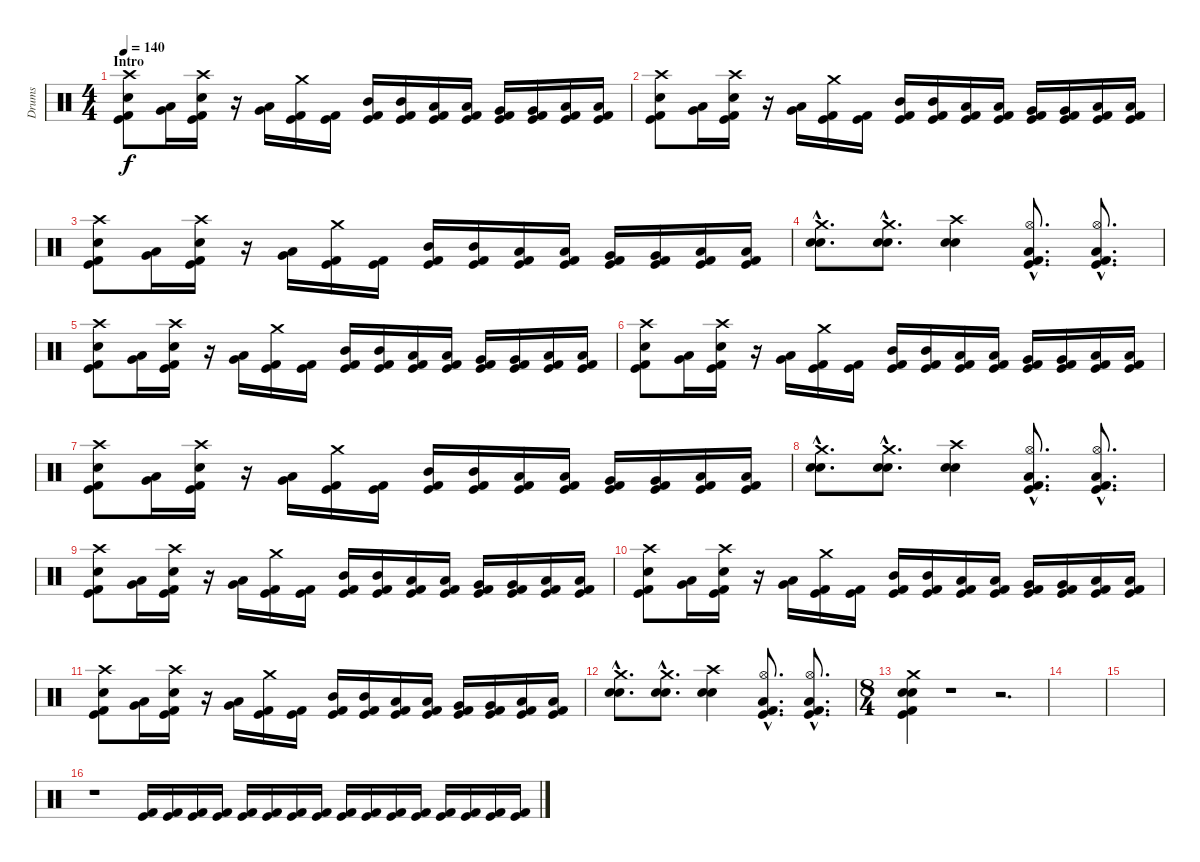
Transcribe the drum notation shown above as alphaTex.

\track ("Drums" "Drums") {instrument percussion}
\staff {score}
\articulation defaults
\ts (4 4)
\section ("" "Intro")
\tempo 140
\clef neutral
\ks c
("Crash high (hit)" "Electric Snare (hit)" "Kick (hit)" "Kick (hit) 2").8{dy f} ("Very Low Tom (hit)" "Low Tom (hit)").16 ("Crash high (hit)" "Electric Snare (hit)" "Kick (hit)" "Kick (hit) 2").16 r.16 ("Very Low Tom (hit)" "Low Tom (hit)").16 ("Crash medium (hit)" "Kick (hit) 2" "Kick (hit)").16 ("Kick (hit)" "Kick (hit) 2").16 ("Mid Tom (hit)" "Kick (hit) 2" "Kick (hit)").16 ("Mid Tom (hit)" "Kick (hit) 2" "Kick (hit)").16 ("Low Tom (hit)" "Kick (hit) 2" "Kick (hit)").16 ("Low Tom (hit)" "Kick (hit) 2" "Kick (hit)").16 ("Very Low Tom (hit)" "Kick (hit) 2" "Kick (hit)").16 ("Very Low Tom (hit)" "Kick (hit) 2" "Kick (hit)").16 ("Low Tom (hit)" "Kick (hit) 2" "Kick (hit)").16 ("Low Tom (hit)" "Kick (hit) 2" "Kick (hit)").16 |
("Crash high (hit)" "Electric Snare (hit)" "Kick (hit)" "Kick (hit) 2").8 ("Very Low Tom (hit)" "Low Tom (hit)").16 ("Crash high (hit)" "Electric Snare (hit)" "Kick (hit)" "Kick (hit) 2").16 r.16 ("Very Low Tom (hit)" "Low Tom (hit)").16 ("Crash medium (hit)" "Kick (hit) 2" "Kick (hit)").16 ("Kick (hit)" "Kick (hit) 2").16 ("Mid Tom (hit)" "Kick (hit) 2" "Kick (hit)").16 ("Mid Tom (hit)" "Kick (hit) 2" "Kick (hit)").16 ("Low Tom (hit)" "Kick (hit) 2" "Kick (hit)").16 ("Low Tom (hit)" "Kick (hit) 2" "Kick (hit)").16 ("Very Low Tom (hit)" "Kick (hit) 2" "Kick (hit)").16 ("Very Low Tom (hit)" "Kick (hit) 2" "Kick (hit)").16 ("Low Tom (hit)" "Kick (hit) 2" "Kick (hit)").16 ("Low Tom (hit)" "Kick (hit) 2" "Kick (hit)").16 |
("Crash high (hit)" "Electric Snare (hit)" "Kick (hit)" "Kick (hit) 2").8 ("Very Low Tom (hit)" "Low Tom (hit)").16 ("Crash high (hit)" "Electric Snare (hit)" "Kick (hit)" "Kick (hit) 2").16 r.16 ("Very Low Tom (hit)" "Low Tom (hit)").16 ("Crash medium (hit)" "Kick (hit) 2" "Kick (hit)").16 ("Kick (hit)" "Kick (hit) 2").16 ("Mid Tom (hit)" "Kick (hit) 2" "Kick (hit)").16 ("Mid Tom (hit)" "Kick (hit) 2" "Kick (hit)").16 ("Low Tom (hit)" "Kick (hit) 2" "Kick (hit)").16 ("Low Tom (hit)" "Kick (hit) 2" "Kick (hit)").16 ("Very Low Tom (hit)" "Kick (hit) 2" "Kick (hit)").16 ("Very Low Tom (hit)" "Kick (hit) 2" "Kick (hit)").16 ("Low Tom (hit)" "Kick (hit) 2" "Kick (hit)").16 ("Low Tom (hit)" "Kick (hit) 2" "Kick (hit)").16 |
("Crash medium (hit)"{hac} "Snare (hit) 2"{hac} "Electric Snare (hit)"{hac}).8{d} ("Crash medium (hit)"{hac} "Snare (hit) 2"{hac} "Electric Snare (hit)"{hac}).8{d} ("Crash high (hit)" "Snare (hit) 2" "Electric Snare (hit)").4 ("Hi-Hat (open)"{hac} "Low Floor Tom (hit)"{hac} "Kick (hit)"{hac} "Kick (hit) 2"{hac}).8{d} ("Hi-Hat (open)"{hac} "Low Floor Tom (hit)"{hac} "Kick (hit)"{hac} "Kick (hit) 2"{hac}).8{d} |
("Crash high (hit)" "Electric Snare (hit)" "Kick (hit)" "Kick (hit) 2").8 ("Very Low Tom (hit)" "Low Tom (hit)").16 ("Crash high (hit)" "Electric Snare (hit)" "Kick (hit)" "Kick (hit) 2").16 r.16 ("Very Low Tom (hit)" "Low Tom (hit)").16 ("Crash medium (hit)" "Kick (hit) 2" "Kick (hit)").16 ("Kick (hit)" "Kick (hit) 2").16 ("Mid Tom (hit)" "Kick (hit) 2" "Kick (hit)").16 ("Mid Tom (hit)" "Kick (hit) 2" "Kick (hit)").16 ("Low Tom (hit)" "Kick (hit) 2" "Kick (hit)").16 ("Low Tom (hit)" "Kick (hit) 2" "Kick (hit)").16 ("Very Low Tom (hit)" "Kick (hit) 2" "Kick (hit)").16 ("Very Low Tom (hit)" "Kick (hit) 2" "Kick (hit)").16 ("Low Tom (hit)" "Kick (hit) 2" "Kick (hit)").16 ("Low Tom (hit)" "Kick (hit) 2" "Kick (hit)").16 |
("Crash high (hit)" "Electric Snare (hit)" "Kick (hit)" "Kick (hit) 2").8 ("Very Low Tom (hit)" "Low Tom (hit)").16 ("Crash high (hit)" "Electric Snare (hit)" "Kick (hit)" "Kick (hit) 2").16 r.16 ("Very Low Tom (hit)" "Low Tom (hit)").16 ("Crash medium (hit)" "Kick (hit) 2" "Kick (hit)").16 ("Kick (hit)" "Kick (hit) 2").16 ("Mid Tom (hit)" "Kick (hit) 2" "Kick (hit)").16 ("Mid Tom (hit)" "Kick (hit) 2" "Kick (hit)").16 ("Low Tom (hit)" "Kick (hit) 2" "Kick (hit)").16 ("Low Tom (hit)" "Kick (hit) 2" "Kick (hit)").16 ("Very Low Tom (hit)" "Kick (hit) 2" "Kick (hit)").16 ("Very Low Tom (hit)" "Kick (hit) 2" "Kick (hit)").16 ("Low Tom (hit)" "Kick (hit) 2" "Kick (hit)").16 ("Low Tom (hit)" "Kick (hit) 2" "Kick (hit)").16 |
("Crash high (hit)" "Electric Snare (hit)" "Kick (hit)" "Kick (hit) 2").8 ("Very Low Tom (hit)" "Low Tom (hit)").16 ("Crash high (hit)" "Electric Snare (hit)" "Kick (hit)" "Kick (hit) 2").16 r.16 ("Very Low Tom (hit)" "Low Tom (hit)").16 ("Crash medium (hit)" "Kick (hit) 2" "Kick (hit)").16 ("Kick (hit)" "Kick (hit) 2").16 ("Mid Tom (hit)" "Kick (hit) 2" "Kick (hit)").16 ("Mid Tom (hit)" "Kick (hit) 2" "Kick (hit)").16 ("Low Tom (hit)" "Kick (hit) 2" "Kick (hit)").16 ("Low Tom (hit)" "Kick (hit) 2" "Kick (hit)").16 ("Very Low Tom (hit)" "Kick (hit) 2" "Kick (hit)").16 ("Very Low Tom (hit)" "Kick (hit) 2" "Kick (hit)").16 ("Low Tom (hit)" "Kick (hit) 2" "Kick (hit)").16 ("Low Tom (hit)" "Kick (hit) 2" "Kick (hit)").16 |
("Crash medium (hit)"{hac} "Snare (hit) 2"{hac} "Electric Snare (hit)"{hac}).8{d} ("Crash medium (hit)"{hac} "Snare (hit) 2"{hac} "Electric Snare (hit)"{hac}).8{d} ("Crash high (hit)" "Snare (hit) 2" "Electric Snare (hit)").4 ("Hi-Hat (open)"{hac} "Low Floor Tom (hit)"{hac} "Kick (hit)"{hac} "Kick (hit) 2"{hac}).8{d} ("Hi-Hat (open)"{hac} "Low Floor Tom (hit)"{hac} "Kick (hit)"{hac} "Kick (hit) 2"{hac}).8{d} |
("Crash high (hit)" "Electric Snare (hit)" "Kick (hit)" "Kick (hit) 2").8 ("Very Low Tom (hit)" "Low Tom (hit)").16 ("Crash high (hit)" "Electric Snare (hit)" "Kick (hit)" "Kick (hit) 2").16 r.16 ("Very Low Tom (hit)" "Low Tom (hit)").16 ("Crash medium (hit)" "Kick (hit) 2" "Kick (hit)").16 ("Kick (hit)" "Kick (hit) 2").16 ("Mid Tom (hit)" "Kick (hit) 2" "Kick (hit)").16 ("Mid Tom (hit)" "Kick (hit) 2" "Kick (hit)").16 ("Low Tom (hit)" "Kick (hit) 2" "Kick (hit)").16 ("Low Tom (hit)" "Kick (hit) 2" "Kick (hit)").16 ("Very Low Tom (hit)" "Kick (hit) 2" "Kick (hit)").16 ("Very Low Tom (hit)" "Kick (hit) 2" "Kick (hit)").16 ("Low Tom (hit)" "Kick (hit) 2" "Kick (hit)").16 ("Low Tom (hit)" "Kick (hit) 2" "Kick (hit)").16 |
("Crash high (hit)" "Electric Snare (hit)" "Kick (hit)" "Kick (hit) 2").8 ("Very Low Tom (hit)" "Low Tom (hit)").16 ("Crash high (hit)" "Electric Snare (hit)" "Kick (hit)" "Kick (hit) 2").16 r.16 ("Very Low Tom (hit)" "Low Tom (hit)").16 ("Crash medium (hit)" "Kick (hit) 2" "Kick (hit)").16 ("Kick (hit)" "Kick (hit) 2").16 ("Mid Tom (hit)" "Kick (hit) 2" "Kick (hit)").16 ("Mid Tom (hit)" "Kick (hit) 2" "Kick (hit)").16 ("Low Tom (hit)" "Kick (hit) 2" "Kick (hit)").16 ("Low Tom (hit)" "Kick (hit) 2" "Kick (hit)").16 ("Very Low Tom (hit)" "Kick (hit) 2" "Kick (hit)").16 ("Very Low Tom (hit)" "Kick (hit) 2" "Kick (hit)").16 ("Low Tom (hit)" "Kick (hit) 2" "Kick (hit)").16 ("Low Tom (hit)" "Kick (hit) 2" "Kick (hit)").16 |
("Crash high (hit)" "Electric Snare (hit)" "Kick (hit)" "Kick (hit) 2").8 ("Very Low Tom (hit)" "Low Tom (hit)").16 ("Crash high (hit)" "Electric Snare (hit)" "Kick (hit)" "Kick (hit) 2").16 r.16 ("Very Low Tom (hit)" "Low Tom (hit)").16 ("Crash medium (hit)" "Kick (hit) 2" "Kick (hit)").16 ("Kick (hit)" "Kick (hit) 2").16 ("Mid Tom (hit)" "Kick (hit) 2" "Kick (hit)").16 ("Mid Tom (hit)" "Kick (hit) 2" "Kick (hit)").16 ("Low Tom (hit)" "Kick (hit) 2" "Kick (hit)").16 ("Low Tom (hit)" "Kick (hit) 2" "Kick (hit)").16 ("Very Low Tom (hit)" "Kick (hit) 2" "Kick (hit)").16 ("Very Low Tom (hit)" "Kick (hit) 2" "Kick (hit)").16 ("Low Tom (hit)" "Kick (hit) 2" "Kick (hit)").16 ("Low Tom (hit)" "Kick (hit) 2" "Kick (hit)").16 |
("Crash medium (hit)"{hac} "Snare (hit) 2"{hac} "Electric Snare (hit)"{hac}).8{d} ("Crash medium (hit)"{hac} "Snare (hit) 2"{hac} "Electric Snare (hit)"{hac}).8{d} ("Crash high (hit)" "Snare (hit) 2" "Electric Snare (hit)").4 ("Hi-Hat (open)"{hac} "Low Floor Tom (hit)"{hac} "Kick (hit)"{hac} "Kick (hit) 2"{hac}).8{d} ("Hi-Hat (open)"{hac} "Low Floor Tom (hit)"{hac} "Kick (hit)"{hac} "Kick (hit) 2"{hac}).8{d} |
\ts (8 4)
("Crash medium (hit)" "Snare (hit) 2" "Electric Snare (hit)" "Kick (hit) 2" "Kick (hit)").4 r.1 r.2{d} |
|
|
r.1 ("Kick (hit) 2" "Kick (hit)").16 ("Kick (hit) 2" "Kick (hit)").16 ("Kick (hit) 2" "Kick (hit)").16 ("Kick (hit) 2" "Kick (hit)").16 ("Kick (hit) 2" "Kick (hit)").16 ("Kick (hit) 2" "Kick (hit)").16 ("Kick (hit) 2" "Kick (hit)").16 ("Kick (hit) 2" "Kick (hit)").16 ("Kick (hit) 2" "Kick (hit)").16 ("Kick (hit) 2" "Kick (hit)").16 ("Kick (hit) 2" "Kick (hit)").16 ("Kick (hit) 2" "Kick (hit)").16 ("Kick (hit) 2" "Kick (hit)").16 ("Kick (hit) 2" "Kick (hit)").16 ("Kick (hit) 2" "Kick (hit)").16 ("Kick (hit) 2" "Kick (hit)").16
